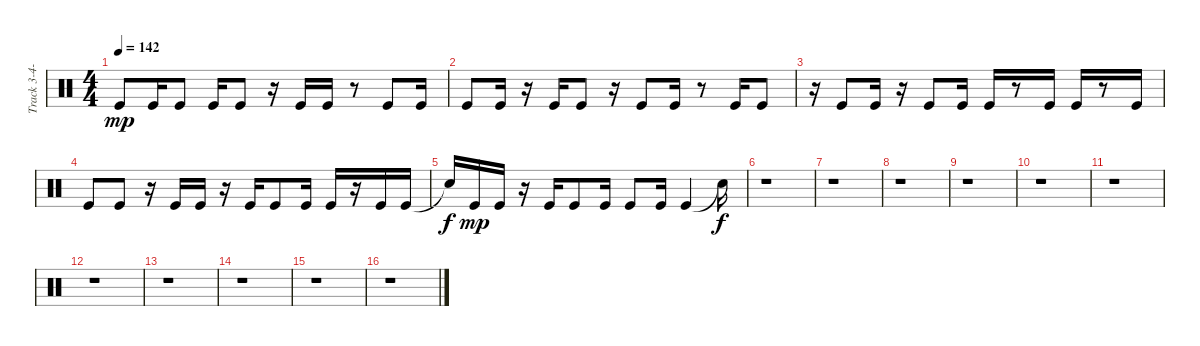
\track ("Track 3-4-5-6-7" "Track 3-4-") {instrument percussion}
\staff {score}
\articulation defaults
\ts (4 4)
\tempo 142
\clef neutral
\ks c "Kick (hit)".8{dy mp} "Kick (hit)".16 "Kick (hit)".8 "Kick (hit)".16 "Kick (hit)".8
r.16 "Kick (hit)".16 "Kick (hit)".16 r.8 "Kick (hit)".8 "Kick (hit)".16 |
"Kick (hit)".8 "Kick (hit)".16 r.16 "Kick (hit)".16 "Kick (hit)".8 r.16 "Kick (hit)".8 "Kick (hit)".16 r.8 "Kick (hit)".16 "Kick (hit)".8 |
r.16 "Kick (hit)".8 "Kick (hit)".16 r.16 "Kick (hit)".8 "Kick (hit)".16 "Kick (hit)".16 r.8 "Kick (hit)".16 "Kick (hit)".16 r.8 "Kick (hit)".16 |
"Kick (hit)".8 "Kick (hit)".8 r.16 "Kick (hit)".16 "Kick (hit)".16 r.16 "Kick (hit)".16 "Kick (hit)".8 "Kick (hit)".16 "Kick (hit)".16 r.16 "Kick (hit)".16 "Kick (hit)".16 |
"Snare (hit)"{t}.16{dy f} "Kick (hit)".16{dy mp} "Kick (hit)".16 r.16 "Kick (hit)".16 "Kick (hit)".8 "Kick (hit)".16 "Kick (hit)".8 "Kick (hit)".16 "Kick (hit)".4 "Snare (hit)"{t}.16{dy f} |
r.1 |
r.1 |
r.1 |
r.1 |
r.1 |
r.1 |
r.1 |
r.1 |
r.1 |
r.1 |
r.1
